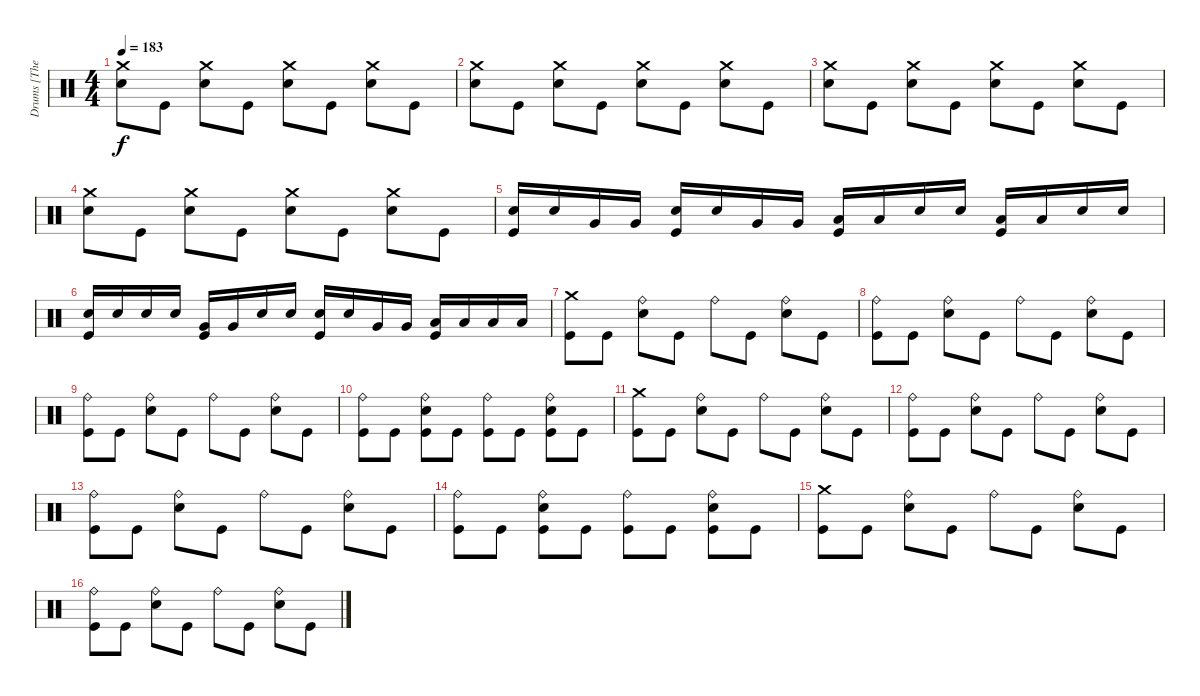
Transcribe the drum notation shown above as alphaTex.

\track ("Drums [The Rev]" "Drums [The") {instrument percussion}
\staff {score}
\articulation defaults
\ts (4 4)
\tempo 183
\clef neutral
\ks c
("Crash medium (hit)" "Snare (hit) 2").8{dy f} "Kick (hit)".8 ("Crash medium (hit)" "Snare (hit) 2").8 "Kick (hit)".8 ("Crash medium (hit)" "Snare (hit) 2").8 "Kick (hit)".8 ("Crash medium (hit)" "Snare (hit) 2").8 "Kick (hit)".8 |
("Crash medium (hit)" "Snare (hit) 2").8 "Kick (hit)".8 ("Crash medium (hit)" "Snare (hit) 2").8 "Kick (hit)".8 ("Crash medium (hit)" "Snare (hit) 2").8 "Kick (hit)".8 ("Crash medium (hit)" "Snare (hit) 2").8 "Kick (hit)".8 |
("Crash medium (hit)" "Snare (hit) 2").8 "Kick (hit)".8 ("Crash medium (hit)" "Snare (hit) 2").8 "Kick (hit)".8 ("Crash medium (hit)" "Snare (hit) 2").8 "Kick (hit)".8 ("Crash medium (hit)" "Snare (hit) 2").8 "Kick (hit)".8 |
("Crash medium (hit)" "Snare (hit) 2").8 "Kick (hit)".8 ("Crash medium (hit)" "Snare (hit) 2").8 "Kick (hit)".8 ("Crash medium (hit)" "Snare (hit) 2").8 "Kick (hit)".8 ("Crash medium (hit)" "Snare (hit) 2").8 "Kick (hit)".8 |
("Snare (hit) 2" "Kick (hit)").16 "Snare (hit) 2".16 "Very Low Tom (hit)".16 "Very Low Tom (hit)".16 ("Snare (hit) 2" "Kick (hit)").16 "Snare (hit) 2".16 "Very Low Tom (hit)".16 "Very Low Tom (hit)".16 ("Low Floor Tom (hit)" "Kick (hit)").16 "Low Floor Tom (hit)".16 "Snare (hit) 2".16 "Snare (hit) 2".16 ("Low Floor Tom (hit)" "Kick (hit)").16 "Low Floor Tom (hit)".16 "Snare (hit) 2".16 "Snare (hit) 2".16 |
("Snare (hit) 2" "Kick (hit)").16 "Snare (hit) 2".16 "Snare (hit) 2".16 "Snare (hit) 2".16 ("Very Low Tom (hit)" "Kick (hit)").16 "Very Low Tom (hit)".16 "Snare (hit) 2".16 "Snare (hit) 2".16 ("Snare (hit) 2" "Kick (hit)").16 "Snare (hit) 2".16 "Very Low Tom (hit)".16 "Very Low Tom (hit)".16 ("Low Floor Tom (hit)" "Kick (hit)").16 "Low Floor Tom (hit)".16 "Low Floor Tom (hit)".16 "Low Floor Tom (hit)".16 |
("Crash medium (hit)" "Kick (hit)").8 "Kick (hit)".8 ("Ride (bell)" "Snare (hit) 2").8 "Kick (hit)".8 "Ride (bell)".8 "Kick (hit)".8 ("Ride (bell)" "Snare (hit) 2").8 "Kick (hit)".8 |
("Ride (bell)" "Kick (hit)").8 "Kick (hit)".8 ("Ride (bell)" "Snare (hit) 2").8 "Kick (hit)".8 "Ride (bell)".8 "Kick (hit)".8 ("Ride (bell)" "Snare (hit) 2").8 "Kick (hit)".8 |
("Ride (bell)" "Kick (hit)").8 "Kick (hit)".8 ("Ride (bell)" "Snare (hit) 2").8 "Kick (hit)".8 "Ride (bell)".8 "Kick (hit)".8 ("Ride (bell)" "Snare (hit) 2").8 "Kick (hit)".8 |
("Ride (bell)" "Kick (hit)").8 "Kick (hit)".8 ("Ride (bell)" "Snare (hit) 2" "Kick (hit)").8 "Kick (hit)".8 ("Ride (bell)" "Kick (hit)").8 "Kick (hit)".8 ("Ride (bell)" "Snare (hit) 2" "Kick (hit)").8 "Kick (hit)".8 |
("Crash medium (hit)" "Kick (hit)").8 "Kick (hit)".8 ("Ride (bell)" "Snare (hit) 2").8 "Kick (hit)".8 "Ride (bell)".8 "Kick (hit)".8 ("Ride (bell)" "Snare (hit) 2").8 "Kick (hit)".8 |
("Ride (bell)" "Kick (hit)").8 "Kick (hit)".8 ("Ride (bell)" "Snare (hit) 2").8 "Kick (hit)".8 "Ride (bell)".8 "Kick (hit)".8 ("Ride (bell)" "Snare (hit) 2").8 "Kick (hit)".8 |
("Ride (bell)" "Kick (hit)").8 "Kick (hit)".8 ("Ride (bell)" "Snare (hit) 2").8 "Kick (hit)".8 "Ride (bell)".8 "Kick (hit)".8 ("Ride (bell)" "Snare (hit) 2").8 "Kick (hit)".8 |
("Ride (bell)" "Kick (hit)").8 "Kick (hit)".8 ("Ride (bell)" "Snare (hit) 2" "Kick (hit)").8 "Kick (hit)".8 ("Ride (bell)" "Kick (hit)").8 "Kick (hit)".8 ("Ride (bell)" "Snare (hit) 2" "Kick (hit)").8 "Kick (hit)".8 |
("Crash medium (hit)" "Kick (hit)").8 "Kick (hit)".8 ("Ride (bell)" "Snare (hit) 2").8 "Kick (hit)".8 "Ride (bell)".8 "Kick (hit)".8 ("Ride (bell)" "Snare (hit) 2").8 "Kick (hit)".8 |
("Ride (bell)" "Kick (hit)").8 "Kick (hit)".8 ("Ride (bell)" "Snare (hit) 2").8 "Kick (hit)".8 "Ride (bell)".8 "Kick (hit)".8 ("Ride (bell)" "Snare (hit) 2").8 "Kick (hit)".8
